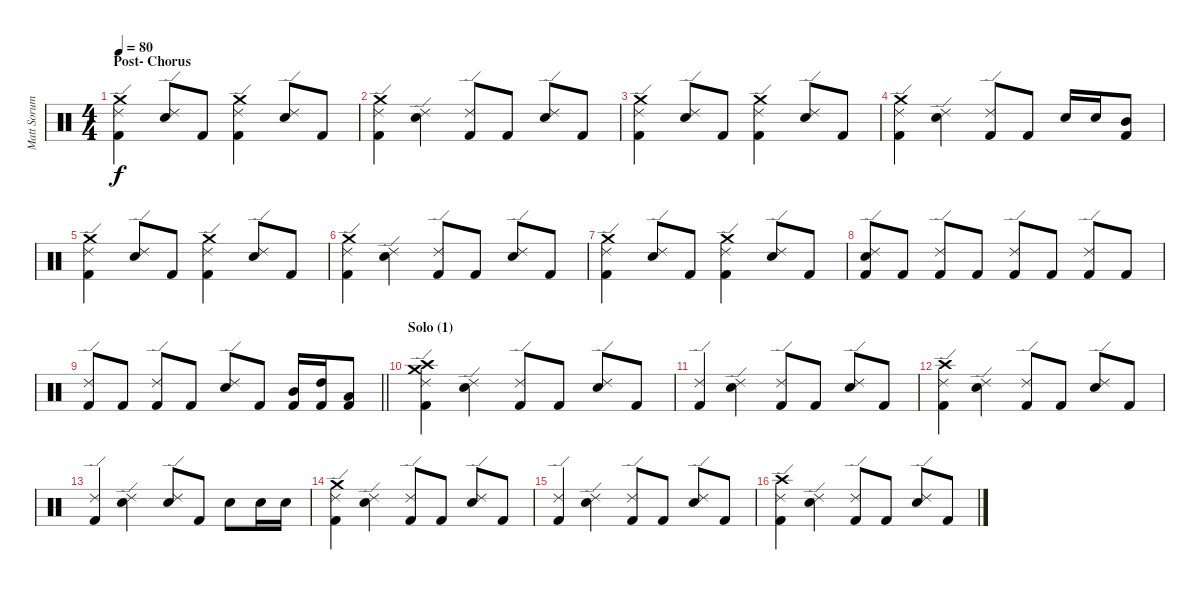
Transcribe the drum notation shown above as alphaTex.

\track ("Matt Sorum" "Matt Sorum") {instrument percussion}
\staff {score}
\articulation defaults
\ts (4 4)
\section ("" "Post- Chorus")
\tempo 80
\clef neutral
\ks c
("Ride (edge) 2" "Kick (hit) 2" "Crash medium (hit)").4{dy f} ("Electric Snare (hit)" "Ride (edge) 2").8 "Kick (hit) 2".8 ("Ride (edge) 2" "Kick (hit) 2" "Crash medium (hit)").4 ("Electric Snare (hit)" "Ride (edge) 2").8 "Kick (hit) 2".8 |
("Ride (edge) 2" "Kick (hit) 2" "Crash medium (hit)").4 ("Electric Snare (hit)" "Ride (edge) 2").4 ("Ride (edge) 2" "Kick (hit) 2").8 "Kick (hit) 2".8 ("Electric Snare (hit)" "Ride (edge) 2").8 "Kick (hit) 2".8 |
("Ride (edge) 2" "Kick (hit) 2" "Crash medium (hit)").4 ("Electric Snare (hit)" "Ride (edge) 2").8 "Kick (hit) 2".8 ("Ride (edge) 2" "Kick (hit) 2" "Crash medium (hit)").4 ("Electric Snare (hit)" "Ride (edge) 2").8 "Kick (hit) 2".8 |
("Ride (edge) 2" "Kick (hit) 2" "Crash medium (hit)").4 ("Electric Snare (hit)" "Ride (edge) 2").4 ("Ride (edge) 2" "Kick (hit) 2").8 "Kick (hit) 2".8 "Electric Snare (hit)".16 "Electric Snare (hit)".16 ("Mid Tom (hit)" "Kick (hit) 2").8 |
("Ride (edge) 2" "Kick (hit) 2" "Crash medium (hit)").4 ("Electric Snare (hit)" "Ride (edge) 2").8 "Kick (hit) 2".8 ("Ride (edge) 2" "Kick (hit) 2" "Crash medium (hit)").4 ("Electric Snare (hit)" "Ride (edge) 2").8 "Kick (hit) 2".8 |
("Ride (edge) 2" "Kick (hit) 2" "Crash medium (hit)").4 ("Electric Snare (hit)" "Ride (edge) 2").4 ("Ride (edge) 2" "Kick (hit) 2").8 "Kick (hit) 2".8 ("Electric Snare (hit)" "Ride (edge) 2").8 "Kick (hit) 2".8 |
("Ride (edge) 2" "Kick (hit) 2" "Crash medium (hit)").4 ("Electric Snare (hit)" "Ride (edge) 2").8 "Kick (hit) 2".8 ("Ride (edge) 2" "Kick (hit) 2" "Crash medium (hit)").4 ("Electric Snare (hit)" "Ride (edge) 2").8 "Kick (hit) 2".8 |
("Electric Snare (hit)" "Ride (edge) 2" "Kick (hit) 2").8 "Kick (hit) 2".8 ("Ride (edge) 2" "Kick (hit) 2").8 "Kick (hit) 2".8 ("Ride (edge) 2" "Kick (hit) 2").8 "Kick (hit) 2".8 ("Ride (edge) 2" "Kick (hit) 2").8 "Kick (hit) 2".8 |
\barLineRight lightlight
("Ride (edge) 2" "Kick (hit) 2").8 "Kick (hit) 2".8 ("Ride (edge) 2" "Kick (hit) 2").8 "Kick (hit) 2".8 ("Electric Snare (hit)" "Ride (edge) 2").8 "Kick (hit) 2".8 ("Mid Tom (hit)" "Kick (hit) 2").16 ("High Tom (hit)" "Kick (hit) 2").16 ("Low Tom (hit)" "Kick (hit) 2").8 |
\section ("" "Solo (1)")
("Ride (edge) 2" "Kick (hit) 2" "Crash high (hit)" "Crash medium (hit)").4 ("Electric Snare (hit)" "Ride (edge) 2").4 ("Ride (edge) 2" "Kick (hit) 2").8 "Kick (hit) 2".8 ("Electric Snare (hit)" "Ride (edge) 2").8 "Kick (hit) 2".8 |
("Ride (edge) 2" "Kick (hit) 2").4 ("Electric Snare (hit)" "Ride (edge) 2").4 ("Ride (edge) 2" "Kick (hit) 2").8 "Kick (hit) 2".8 ("Electric Snare (hit)" "Ride (edge) 2").8 "Kick (hit) 2".8 |
("Ride (edge) 2" "Kick (hit) 2" "Crash high (hit)").4 ("Electric Snare (hit)" "Ride (edge) 2").4 ("Ride (edge) 2" "Kick (hit) 2").8 "Kick (hit) 2".8 ("Electric Snare (hit)" "Ride (edge) 2").8 "Kick (hit) 2".8 |
("Ride (edge) 2" "Kick (hit) 2").4 ("Electric Snare (hit)" "Ride (edge) 2").4 ("Electric Snare (hit)" "Ride (edge) 2").8 "Kick (hit) 2".8 "Electric Snare (hit)".8 "Electric Snare (hit)".16 "Electric Snare (hit)".16 |
("Ride (edge) 2" "Kick (hit) 2" "Crash medium (hit)").4 ("Electric Snare (hit)" "Ride (edge) 2").4 ("Ride (edge) 2" "Kick (hit) 2").8 "Kick (hit) 2".8 ("Electric Snare (hit)" "Ride (edge) 2").8 "Kick (hit) 2".8 |
("Ride (edge) 2" "Kick (hit) 2").4 ("Electric Snare (hit)" "Ride (edge) 2").4 ("Ride (edge) 2" "Kick (hit) 2").8 "Kick (hit) 2".8 ("Electric Snare (hit)" "Ride (edge) 2").8 "Kick (hit) 2".8 |
("Ride (edge) 2" "Kick (hit) 2" "Crash high (hit)").4 ("Electric Snare (hit)" "Ride (edge) 2").4 ("Ride (edge) 2" "Kick (hit) 2").8 "Kick (hit) 2".8 ("Electric Snare (hit)" "Ride (edge) 2").8 "Kick (hit) 2".8
